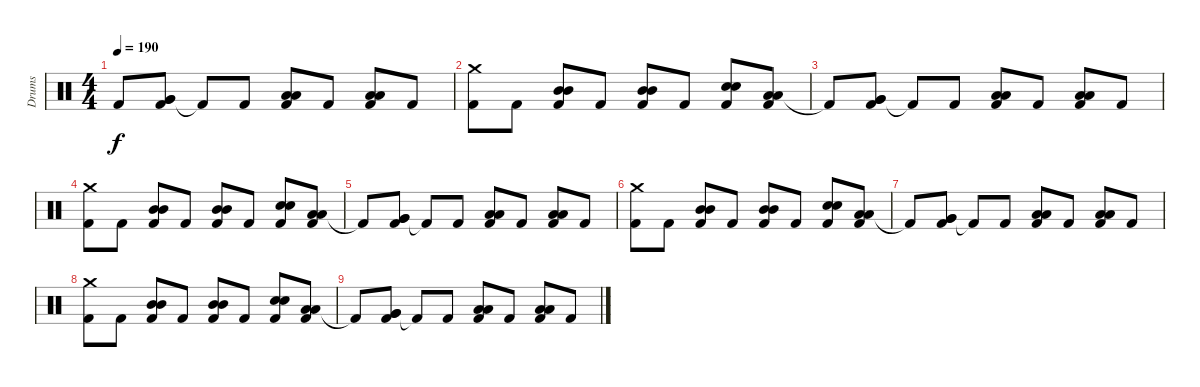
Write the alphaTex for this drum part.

\track ("Drums" "Drums") {instrument percussion}
\staff {score}
\articulation defaults
\ts (4 4)
\tempo 190
\clef neutral
\ks c "Kick (hit) 2"{t}.8{dy f}
("Very Low Tom (hit)" "Very Low Tom (hit)" "Kick (hit) 2").8 "Kick (hit) 2"{t}.8 "Kick (hit) 2".8 ("Low Floor Tom (hit)" "Low Floor Tom (hit)" "Kick (hit) 2").8 "Kick (hit) 2".8 ("Low Floor Tom (hit)" "Low Floor Tom (hit)" "Kick (hit) 2").8 "Kick (hit) 2".8 |
("Crash medium (hit)" "Kick (hit) 2").8 "Kick (hit) 2".8 ("Mid Tom (hit)" "Mid Tom (hit)" "Kick (hit) 2").8 "Kick (hit) 2".8 ("Mid Tom (hit)" "Mid Tom (hit)" "Kick (hit) 2").8 "Kick (hit) 2".8 ("Snare (hit) 2" "Snare (hit) 2" "Kick (hit) 2").8 ("Low Tom (hit)" "Low Tom (hit)" "Kick (hit) 2").8 |
"Kick (hit) 2"{t}.8 ("Very Low Tom (hit)" "Very Low Tom (hit)" "Kick (hit) 2").8 "Kick (hit) 2"{t}.8 "Kick (hit) 2".8 ("Low Floor Tom (hit)" "Low Floor Tom (hit)" "Kick (hit) 2").8 "Kick (hit) 2".8 ("Low Floor Tom (hit)" "Low Floor Tom (hit)" "Kick (hit) 2").8 "Kick (hit) 2".8 |
("Crash medium (hit)" "Kick (hit) 2").8 "Kick (hit) 2".8 ("Mid Tom (hit)" "Mid Tom (hit)" "Kick (hit) 2").8 "Kick (hit) 2".8 ("Mid Tom (hit)" "Mid Tom (hit)" "Kick (hit) 2").8 "Kick (hit) 2".8 ("Snare (hit) 2" "Snare (hit) 2" "Kick (hit) 2").8 ("Low Tom (hit)" "Low Tom (hit)" "Kick (hit) 2").8 |
"Kick (hit) 2"{t}.8 ("Very Low Tom (hit)" "Very Low Tom (hit)" "Kick (hit) 2").8 "Kick (hit) 2"{t}.8 "Kick (hit) 2".8 ("Low Floor Tom (hit)" "Low Floor Tom (hit)" "Kick (hit) 2").8 "Kick (hit) 2".8 ("Low Floor Tom (hit)" "Low Floor Tom (hit)" "Kick (hit) 2").8 "Kick (hit) 2".8 |
("Crash medium (hit)" "Kick (hit) 2").8 "Kick (hit) 2".8 ("Mid Tom (hit)" "Mid Tom (hit)" "Kick (hit) 2").8 "Kick (hit) 2".8 ("Mid Tom (hit)" "Mid Tom (hit)" "Kick (hit) 2").8 "Kick (hit) 2".8 ("Snare (hit) 2" "Snare (hit) 2" "Kick (hit) 2").8 ("Low Tom (hit)" "Low Tom (hit)" "Kick (hit) 2").8 |
"Kick (hit) 2"{t}.8 ("Very Low Tom (hit)" "Very Low Tom (hit)" "Kick (hit) 2").8 "Kick (hit) 2"{t}.8 "Kick (hit) 2".8 ("Low Floor Tom (hit)" "Low Floor Tom (hit)" "Kick (hit) 2").8 "Kick (hit) 2".8 ("Low Floor Tom (hit)" "Low Floor Tom (hit)" "Kick (hit) 2").8 "Kick (hit) 2".8 |
("Crash medium (hit)" "Kick (hit) 2").8 "Kick (hit) 2".8 ("Mid Tom (hit)" "Mid Tom (hit)" "Kick (hit) 2").8 "Kick (hit) 2".8 ("Mid Tom (hit)" "Mid Tom (hit)" "Kick (hit) 2").8 "Kick (hit) 2".8 ("Snare (hit) 2" "Snare (hit) 2" "Kick (hit) 2").8 ("Low Tom (hit)" "Low Tom (hit)" "Kick (hit) 2").8 |
"Kick (hit) 2"{t}.8 ("Very Low Tom (hit)" "Very Low Tom (hit)" "Kick (hit) 2").8 "Kick (hit) 2"{t}.8 "Kick (hit) 2".8 ("Low Floor Tom (hit)" "Low Floor Tom (hit)" "Kick (hit) 2").8 "Kick (hit) 2".8 ("Low Floor Tom (hit)" "Low Floor Tom (hit)" "Kick (hit) 2").8 "Kick (hit) 2".8
